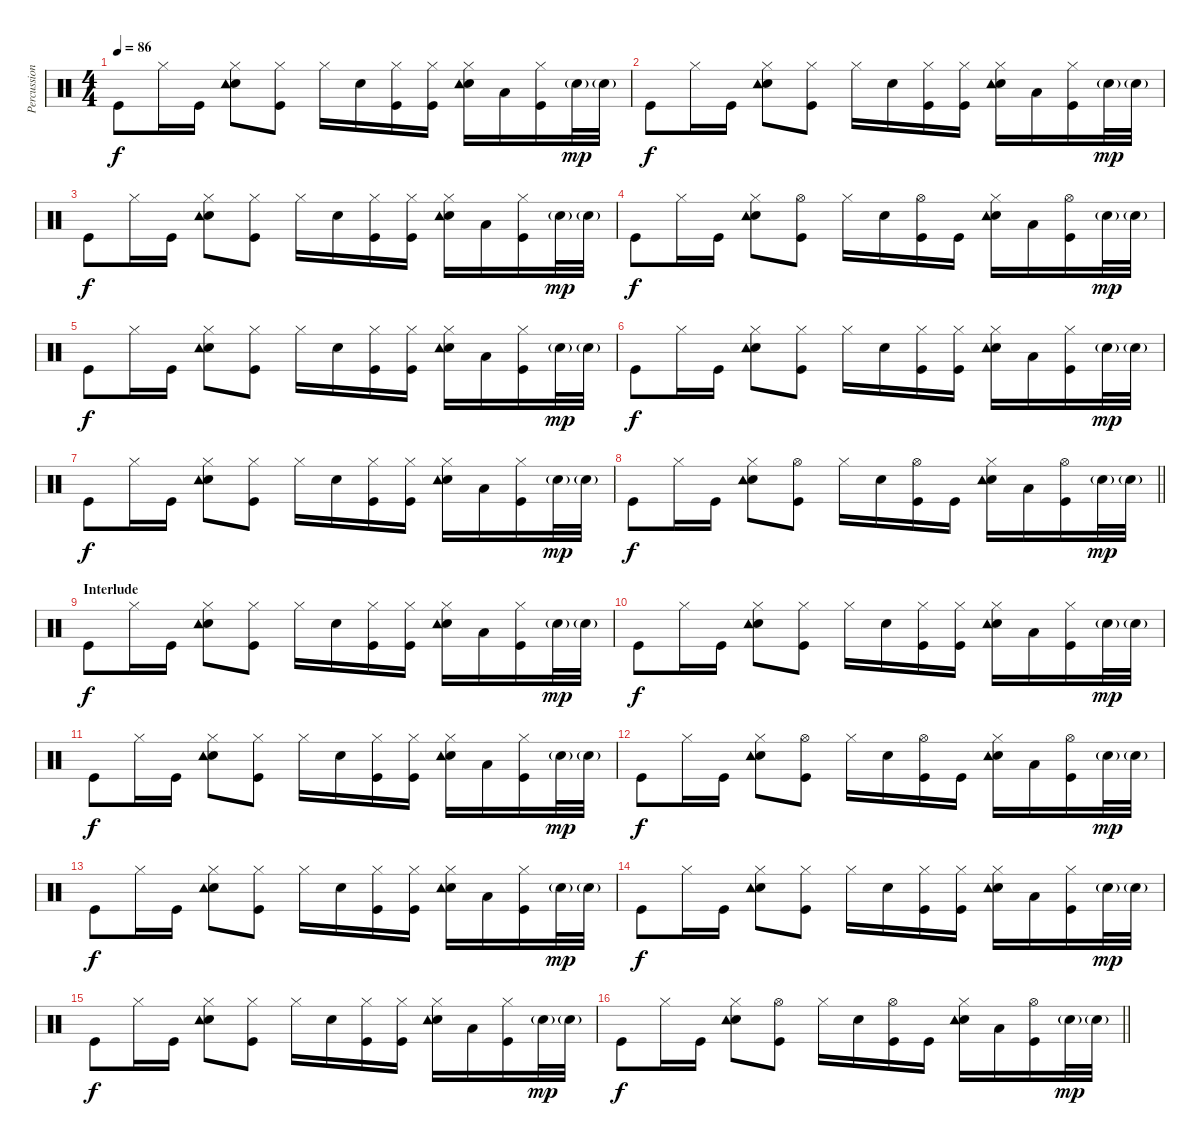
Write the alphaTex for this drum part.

\track ("Percussion" "Percussion") {instrument percussion}
\staff {score}
\articulation defaults
\ts (4 4)
\tempo 86
\clef neutral
\ks c "Kick (hit)".8{dy f} "Hi-Hat (closed)".16 "Kick (hit)".16
("Snare (hit) 2" "Hi-Hat (closed)" "Tambourine (hit)").8 ("Hi-Hat (closed)" "Kick (hit)").8 "Hi-Hat (closed)".16 "Snare (hit) 2".16 ("Kick (hit)" "Hi-Hat (closed)").16 ("Kick (hit)" "Hi-Hat (closed)").16 ("Snare (hit) 2" "Hi-Hat (closed)" "Tambourine (hit)").16 "Low Tom (hit)".16 ("Hi-Hat (closed)" "Kick (hit)").16 "Snare (hit) 2"{g}.32{dy mp} "Snare (hit) 2"{g}.32 |
"Kick (hit)".8{dy f} "Hi-Hat (closed)".16 "Kick (hit)".16 ("Snare (hit) 2" "Hi-Hat (closed)" "Tambourine (hit)").8 ("Hi-Hat (closed)" "Kick (hit)").8 "Hi-Hat (closed)".16 "Snare (hit) 2".16 ("Kick (hit)" "Hi-Hat (closed)").16 ("Kick (hit)" "Hi-Hat (closed)").16 ("Snare (hit) 2" "Hi-Hat (closed)" "Tambourine (hit)").16 "Low Tom (hit)".16 ("Hi-Hat (closed)" "Kick (hit)").16 "Snare (hit) 2"{g}.32{dy mp} "Snare (hit) 2"{g}.32 |
"Kick (hit)".8{dy f} "Hi-Hat (closed)".16 "Kick (hit)".16 ("Snare (hit) 2" "Hi-Hat (closed)" "Tambourine (hit)").8 ("Hi-Hat (closed)" "Kick (hit)").8 "Hi-Hat (closed)".16 "Snare (hit) 2".16 ("Kick (hit)" "Hi-Hat (closed)").16 ("Kick (hit)" "Hi-Hat (closed)").16 ("Snare (hit) 2" "Hi-Hat (closed)" "Tambourine (hit)").16 "Low Tom (hit)".16 ("Hi-Hat (closed)" "Kick (hit)").16 "Snare (hit) 2"{g}.32{dy mp} "Snare (hit) 2"{g}.32 |
"Kick (hit)".8{dy f} "Hi-Hat (closed)".16 "Kick (hit)".16 ("Snare (hit) 2" "Hi-Hat (closed)" "Tambourine (hit)").8 ("Hi-Hat (open)" "Kick (hit)").8 "Hi-Hat (closed)".16 "Snare (hit) 2".16 ("Kick (hit)" "Hi-Hat (open)").16 "Kick (hit)".16 ("Snare (hit) 2" "Tambourine (hit)" "Hi-Hat (closed)").16 "Low Tom (hit)".16 ("Hi-Hat (open)" "Kick (hit)").16 "Snare (hit) 2"{g}.32{dy mp} "Snare (hit) 2"{g}.32 |
"Kick (hit)".8{dy f} "Hi-Hat (closed)".16 "Kick (hit)".16 ("Snare (hit) 2" "Hi-Hat (closed)" "Tambourine (hit)").8 ("Hi-Hat (closed)" "Kick (hit)").8 "Hi-Hat (closed)".16 "Snare (hit) 2".16 ("Kick (hit)" "Hi-Hat (closed)").16 ("Kick (hit)" "Hi-Hat (closed)").16 ("Snare (hit) 2" "Hi-Hat (closed)" "Tambourine (hit)").16 "Low Tom (hit)".16 ("Hi-Hat (closed)" "Kick (hit)").16 "Snare (hit) 2"{g}.32{dy mp} "Snare (hit) 2"{g}.32 |
"Kick (hit)".8{dy f} "Hi-Hat (closed)".16 "Kick (hit)".16 ("Snare (hit) 2" "Hi-Hat (closed)" "Tambourine (hit)").8 ("Hi-Hat (closed)" "Kick (hit)").8 "Hi-Hat (closed)".16 "Snare (hit) 2".16 ("Kick (hit)" "Hi-Hat (closed)").16 ("Kick (hit)" "Hi-Hat (closed)").16 ("Snare (hit) 2" "Hi-Hat (closed)" "Tambourine (hit)").16 "Low Tom (hit)".16 ("Hi-Hat (closed)" "Kick (hit)").16 "Snare (hit) 2"{g}.32{dy mp} "Snare (hit) 2"{g}.32 |
"Kick (hit)".8{dy f} "Hi-Hat (closed)".16 "Kick (hit)".16 ("Snare (hit) 2" "Hi-Hat (closed)" "Tambourine (hit)").8 ("Hi-Hat (closed)" "Kick (hit)").8 "Hi-Hat (closed)".16 "Snare (hit) 2".16 ("Kick (hit)" "Hi-Hat (closed)").16 ("Kick (hit)" "Hi-Hat (closed)").16 ("Snare (hit) 2" "Hi-Hat (closed)" "Tambourine (hit)").16 "Low Tom (hit)".16 ("Hi-Hat (closed)" "Kick (hit)").16 "Snare (hit) 2"{g}.32{dy mp} "Snare (hit) 2"{g}.32 |
\barLineRight lightlight "Kick (hit)".8{dy f} "Hi-Hat (closed)".16 "Kick (hit)".16
("Snare (hit) 2" "Hi-Hat (closed)" "Tambourine (hit)").8 ("Hi-Hat (open)" "Kick (hit)").8 "Hi-Hat (closed)".16 "Snare (hit) 2".16 ("Kick (hit)" "Hi-Hat (open)").16 "Kick (hit)".16 ("Snare (hit) 2" "Tambourine (hit)" "Hi-Hat (closed)").16 "Low Tom (hit)".16 ("Hi-Hat (open)" "Kick (hit)").16 "Snare (hit) 2"{g}.32{dy mp} "Snare (hit) 2"{g}.32 |
\section ("" "Interlude")
"Kick (hit)".8{dy f} "Hi-Hat (closed)".16 "Kick (hit)".16 ("Snare (hit) 2" "Hi-Hat (closed)" "Tambourine (hit)").8 ("Hi-Hat (closed)" "Kick (hit)").8 "Hi-Hat (closed)".16 "Snare (hit) 2".16 ("Kick (hit)" "Hi-Hat (closed)").16 ("Kick (hit)" "Hi-Hat (closed)").16 ("Snare (hit) 2" "Hi-Hat (closed)" "Tambourine (hit)").16 "Low Tom (hit)".16 ("Hi-Hat (closed)" "Kick (hit)").16 "Snare (hit) 2"{g}.32{dy mp} "Snare (hit) 2"{g}.32 |
"Kick (hit)".8{dy f} "Hi-Hat (closed)".16 "Kick (hit)".16 ("Snare (hit) 2" "Hi-Hat (closed)" "Tambourine (hit)").8 ("Hi-Hat (closed)" "Kick (hit)").8 "Hi-Hat (closed)".16 "Snare (hit) 2".16 ("Kick (hit)" "Hi-Hat (closed)").16 ("Kick (hit)" "Hi-Hat (closed)").16 ("Snare (hit) 2" "Hi-Hat (closed)" "Tambourine (hit)").16 "Low Tom (hit)".16 ("Hi-Hat (closed)" "Kick (hit)").16 "Snare (hit) 2"{g}.32{dy mp} "Snare (hit) 2"{g}.32 |
"Kick (hit)".8{dy f} "Hi-Hat (closed)".16 "Kick (hit)".16 ("Snare (hit) 2" "Hi-Hat (closed)" "Tambourine (hit)").8 ("Hi-Hat (closed)" "Kick (hit)").8 "Hi-Hat (closed)".16 "Snare (hit) 2".16 ("Kick (hit)" "Hi-Hat (closed)").16 ("Kick (hit)" "Hi-Hat (closed)").16 ("Snare (hit) 2" "Hi-Hat (closed)" "Tambourine (hit)").16 "Low Tom (hit)".16 ("Hi-Hat (closed)" "Kick (hit)").16 "Snare (hit) 2"{g}.32{dy mp} "Snare (hit) 2"{g}.32 |
"Kick (hit)".8{dy f} "Hi-Hat (closed)".16 "Kick (hit)".16 ("Snare (hit) 2" "Hi-Hat (closed)" "Tambourine (hit)").8 ("Hi-Hat (open)" "Kick (hit)").8 "Hi-Hat (closed)".16 "Snare (hit) 2".16 ("Kick (hit)" "Hi-Hat (open)").16 "Kick (hit)".16 ("Snare (hit) 2" "Tambourine (hit)" "Hi-Hat (closed)").16 "Low Tom (hit)".16 ("Hi-Hat (open)" "Kick (hit)").16 "Snare (hit) 2"{g}.32{dy mp} "Snare (hit) 2"{g}.32 |
"Kick (hit)".8{dy f} "Hi-Hat (closed)".16 "Kick (hit)".16 ("Snare (hit) 2" "Hi-Hat (closed)" "Tambourine (hit)").8 ("Hi-Hat (closed)" "Kick (hit)").8 "Hi-Hat (closed)".16 "Snare (hit) 2".16 ("Kick (hit)" "Hi-Hat (closed)").16 ("Kick (hit)" "Hi-Hat (closed)").16 ("Snare (hit) 2" "Hi-Hat (closed)" "Tambourine (hit)").16 "Low Tom (hit)".16 ("Hi-Hat (closed)" "Kick (hit)").16 "Snare (hit) 2"{g}.32{dy mp} "Snare (hit) 2"{g}.32 |
"Kick (hit)".8{dy f} "Hi-Hat (closed)".16 "Kick (hit)".16 ("Snare (hit) 2" "Hi-Hat (closed)" "Tambourine (hit)").8 ("Hi-Hat (closed)" "Kick (hit)").8 "Hi-Hat (closed)".16 "Snare (hit) 2".16 ("Kick (hit)" "Hi-Hat (closed)").16 ("Kick (hit)" "Hi-Hat (closed)").16 ("Snare (hit) 2" "Hi-Hat (closed)" "Tambourine (hit)").16 "Low Tom (hit)".16 ("Hi-Hat (closed)" "Kick (hit)").16 "Snare (hit) 2"{g}.32{dy mp} "Snare (hit) 2"{g}.32 |
"Kick (hit)".8{dy f} "Hi-Hat (closed)".16 "Kick (hit)".16 ("Snare (hit) 2" "Hi-Hat (closed)" "Tambourine (hit)").8 ("Hi-Hat (closed)" "Kick (hit)").8 "Hi-Hat (closed)".16 "Snare (hit) 2".16 ("Kick (hit)" "Hi-Hat (closed)").16 ("Kick (hit)" "Hi-Hat (closed)").16 ("Snare (hit) 2" "Hi-Hat (closed)" "Tambourine (hit)").16 "Low Tom (hit)".16 ("Hi-Hat (closed)" "Kick (hit)").16 "Snare (hit) 2"{g}.32{dy mp} "Snare (hit) 2"{g}.32 |
\barLineRight lightlight "Kick (hit)".8{dy f} "Hi-Hat (closed)".16 "Kick (hit)".16
("Snare (hit) 2" "Hi-Hat (closed)" "Tambourine (hit)").8 ("Hi-Hat (open)" "Kick (hit)").8 "Hi-Hat (closed)".16 "Snare (hit) 2".16 ("Kick (hit)" "Hi-Hat (open)").16 "Kick (hit)".16 ("Snare (hit) 2" "Tambourine (hit)" "Hi-Hat (closed)").16 "Low Tom (hit)".16 ("Hi-Hat (open)" "Kick (hit)").16 "Snare (hit) 2"{g}.32{dy mp} "Snare (hit) 2"{g}.32
